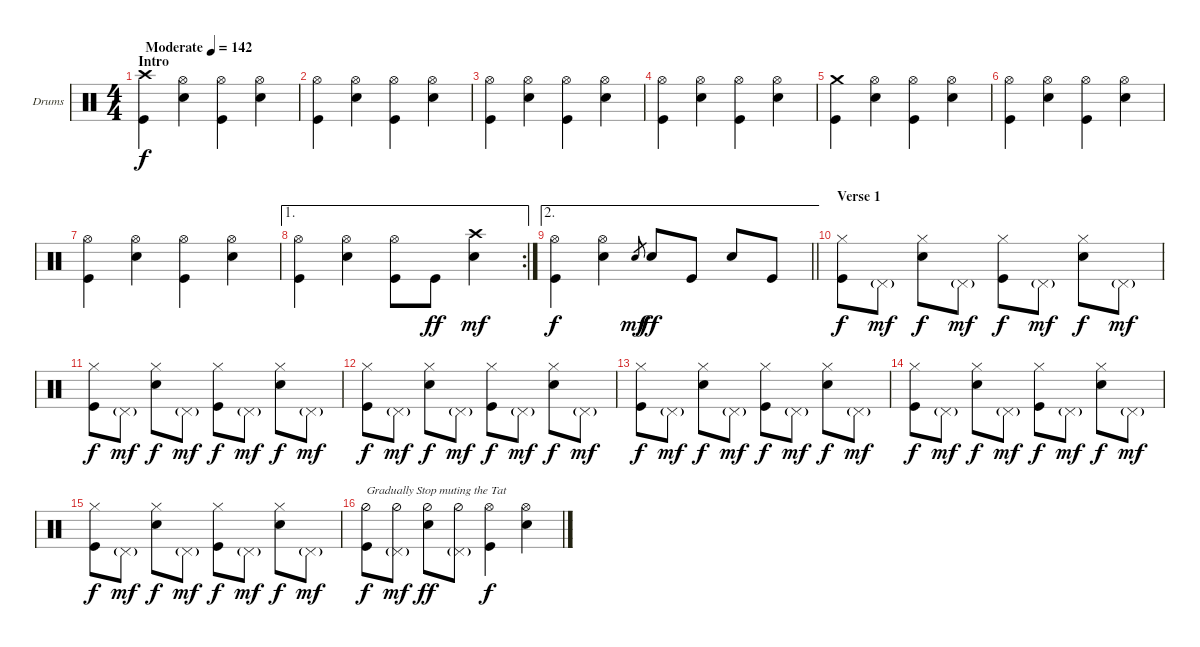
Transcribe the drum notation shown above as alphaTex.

\bracketExtendMode groupsimilarinstruments
\firstSystemTrackNameOrientation horizontal
\otherSystemsTrackNameOrientation horizontal
\track ("Percussion" "Drums") {instrument percussion}
\staff {score}
\articulation defaults
\ts (4 4)
\beaming (8 2 2 2 2)
\section ("" "Intro")
\tempo (142 "Moderate")
\clef neutral
\ks c
("Crash high (hit)" "Kick (hit)").4{dy f} ("Hi-Hat (open)" "Snare (hit) 2").4 ("Hi-Hat (open)" "Kick (hit)").4 ("Hi-Hat (open)" "Snare (hit) 2").4 |
("Hi-Hat (open)" "Kick (hit)").4 ("Hi-Hat (open)" "Snare (hit) 2").4 ("Hi-Hat (open)" "Kick (hit)").4 ("Hi-Hat (open)" "Snare (hit) 2").4 |
("Hi-Hat (open)" "Kick (hit)").4 ("Hi-Hat (open)" "Snare (hit) 2").4 ("Hi-Hat (open)" "Kick (hit)").4 ("Hi-Hat (open)" "Snare (hit) 2").4 |
("Hi-Hat (open)" "Kick (hit)").4 ("Hi-Hat (open)" "Snare (hit) 2").4 ("Hi-Hat (open)" "Kick (hit)").4 ("Hi-Hat (open)" "Snare (hit) 2").4 |
("Crash medium (hit)" "Kick (hit)").4 ("Hi-Hat (open)" "Snare (hit) 2").4 ("Hi-Hat (open)" "Kick (hit)").4 ("Hi-Hat (open)" "Snare (hit) 2").4 |
("Hi-Hat (open)" "Kick (hit)").4 ("Hi-Hat (open)" "Snare (hit) 2").4 ("Hi-Hat (open)" "Kick (hit)").4 ("Hi-Hat (open)" "Snare (hit) 2").4 |
("Hi-Hat (open)" "Kick (hit)").4 ("Hi-Hat (open)" "Snare (hit) 2").4 ("Hi-Hat (open)" "Kick (hit)").4 ("Hi-Hat (open)" "Snare (hit) 2").4 |
\ae 1
\rc 2
("Hi-Hat (open)" "Kick (hit)").4 ("Hi-Hat (open)" "Snare (hit) 2").4 ("Hi-Hat (open)" "Kick (hit)").8 "Kick (hit)".8{dy ff} ("Crash high (hit)" "Snare (hit) 2").4{dy mf} |
\ae 2
\barLineRight lightlight
("Hi-Hat (open)" "Kick (hit)").4{dy f} ("Hi-Hat (open)" "Snare (hit) 2").4 "Snare (hit) 2".8{gr dy mf} "Snare (hit) 2".8{dy ff} "Kick (hit)".8 "Snare (hit) 2".8 "Kick (hit)".8 |
\section ("" "Verse 1")
("Hi-Hat (closed)" "Kick (hit)").8{dy f} "Pedal Hi-Hat (hit)"{g}.8{dy mf} ("Hi-Hat (closed)" "Snare (hit) 2").8{dy f} "Pedal Hi-Hat (hit)"{g}.8{dy mf} ("Hi-Hat (closed)" "Kick (hit)").8{dy f} "Pedal Hi-Hat (hit)"{g}.8{dy mf} ("Hi-Hat (closed)" "Snare (hit) 2").8{dy f} "Pedal Hi-Hat (hit)"{g}.8{dy mf} |
("Hi-Hat (closed)" "Kick (hit)").8{dy f} "Pedal Hi-Hat (hit)"{g}.8{dy mf} ("Hi-Hat (closed)" "Snare (hit) 2").8{dy f} "Pedal Hi-Hat (hit)"{g}.8{dy mf} ("Hi-Hat (closed)" "Kick (hit)").8{dy f} "Pedal Hi-Hat (hit)"{g}.8{dy mf} ("Hi-Hat (closed)" "Snare (hit) 2").8{dy f} "Pedal Hi-Hat (hit)"{g}.8{dy mf} |
("Hi-Hat (closed)" "Kick (hit)").8{dy f} "Pedal Hi-Hat (hit)"{g}.8{dy mf} ("Hi-Hat (closed)" "Snare (hit) 2").8{dy f} "Pedal Hi-Hat (hit)"{g}.8{dy mf} ("Hi-Hat (closed)" "Kick (hit)").8{dy f} "Pedal Hi-Hat (hit)"{g}.8{dy mf} ("Hi-Hat (closed)" "Snare (hit) 2").8{dy f} "Pedal Hi-Hat (hit)"{g}.8{dy mf} |
("Hi-Hat (closed)" "Kick (hit)").8{dy f} "Pedal Hi-Hat (hit)"{g}.8{dy mf} ("Hi-Hat (closed)" "Snare (hit) 2").8{dy f} "Pedal Hi-Hat (hit)"{g}.8{dy mf} ("Hi-Hat (closed)" "Kick (hit)").8{dy f} "Pedal Hi-Hat (hit)"{g}.8{dy mf} ("Hi-Hat (closed)" "Snare (hit) 2").8{dy f} "Pedal Hi-Hat (hit)"{g}.8{dy mf} |
("Hi-Hat (closed)" "Kick (hit)").8{dy f} "Pedal Hi-Hat (hit)"{g}.8{dy mf} ("Hi-Hat (closed)" "Snare (hit) 2").8{dy f} "Pedal Hi-Hat (hit)"{g}.8{dy mf} ("Hi-Hat (closed)" "Kick (hit)").8{dy f} "Pedal Hi-Hat (hit)"{g}.8{dy mf} ("Hi-Hat (closed)" "Snare (hit) 2").8{dy f} "Pedal Hi-Hat (hit)"{g}.8{dy mf} |
("Hi-Hat (closed)" "Kick (hit)").8{dy f} "Pedal Hi-Hat (hit)"{g}.8{dy mf} ("Hi-Hat (closed)" "Snare (hit) 2").8{dy f} "Pedal Hi-Hat (hit)"{g}.8{dy mf} ("Hi-Hat (closed)" "Kick (hit)").8{dy f} "Pedal Hi-Hat (hit)"{g}.8{dy mf} ("Hi-Hat (closed)" "Snare (hit) 2").8{dy f} "Pedal Hi-Hat (hit)"{g}.8{dy mf} |
("Hi-Hat (half)" "Kick (hit)").8{txt "Gradually Stop muting the Tat" dy f} ("Pedal Hi-Hat (hit)"{g} "Hi-Hat (half)").8{dy mf} ("Hi-Hat (half)" "Snare (hit) 2").8{dy ff} ("Pedal Hi-Hat (hit)"{g} "Hi-Hat (half)").8 ("Hi-Hat (open)" "Kick (hit)").4{dy f} ("Hi-Hat (open)" "Snare (hit) 2").4
